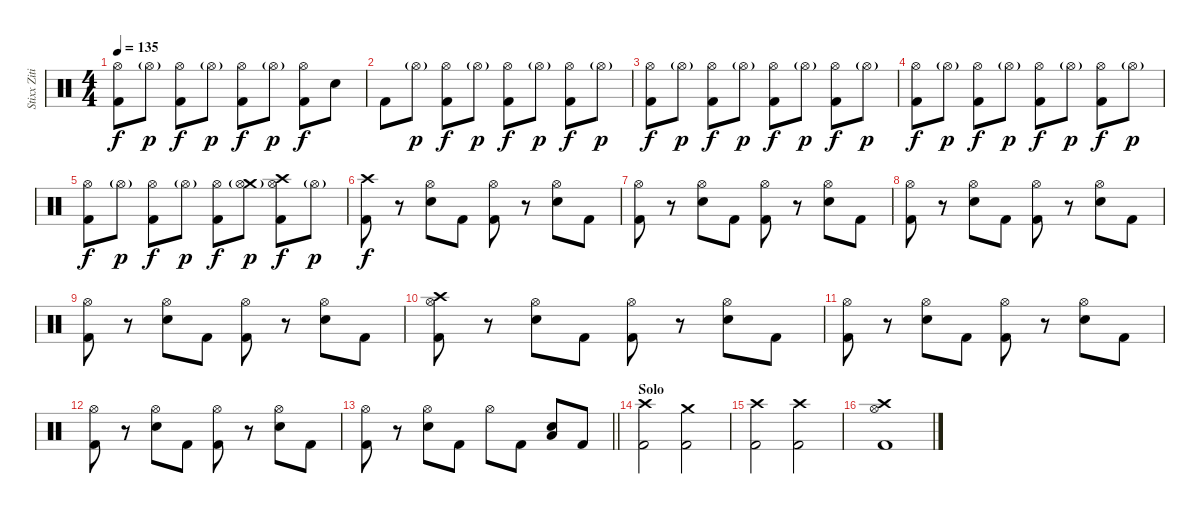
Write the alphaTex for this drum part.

\track ("Stixx Zitinya Drums" "Stixx Ziti") {instrument percussion}
\staff {score}
\articulation defaults
\ts (4 4)
\tempo 135
\clef neutral
\ks c
("Hi-Hat (open)" "Kick (hit) 2").8{dy f} "Hi-Hat (open)"{g}.8{dy p} ("Hi-Hat (open)" "Kick (hit) 2").8{dy f} "Hi-Hat (open)"{g}.8{dy p} ("Hi-Hat (open)" "Kick (hit) 2").8{dy f} "Hi-Hat (open)"{g}.8{dy p} ("Hi-Hat (open)" "Kick (hit) 2").8{dy f} "Snare (hit) 2".8 |
"Kick (hit) 2".8 "Hi-Hat (open)"{g}.8{dy p} ("Hi-Hat (open)" "Kick (hit) 2").8{dy f} "Hi-Hat (open)"{g}.8{dy p} ("Hi-Hat (open)" "Kick (hit) 2").8{dy f} "Hi-Hat (open)"{g}.8{dy p} ("Hi-Hat (open)" "Kick (hit) 2").8{dy f} "Hi-Hat (open)"{g}.8{dy p} |
("Hi-Hat (open)" "Kick (hit) 2").8{dy f} "Hi-Hat (open)"{g}.8{dy p} ("Hi-Hat (open)" "Kick (hit) 2").8{dy f} "Hi-Hat (open)"{g}.8{dy p} ("Hi-Hat (open)" "Kick (hit) 2").8{dy f} "Hi-Hat (open)"{g}.8{dy p} ("Hi-Hat (open)" "Kick (hit) 2").8{dy f} "Hi-Hat (open)"{g}.8{dy p} |
("Hi-Hat (open)" "Kick (hit) 2").8{dy f} "Hi-Hat (open)"{g}.8{dy p} ("Hi-Hat (open)" "Kick (hit) 2").8{dy f} "Hi-Hat (open)"{g}.8{dy p} ("Hi-Hat (open)" "Kick (hit) 2").8{dy f} "Hi-Hat (open)"{g}.8{dy p} ("Hi-Hat (open)" "Kick (hit) 2").8{dy f} "Hi-Hat (open)"{g}.8{dy p} |
("Hi-Hat (open)" "Kick (hit) 2").8{dy f} "Hi-Hat (open)"{g}.8{dy p} ("Hi-Hat (open)" "Kick (hit) 2").8{dy f} "Hi-Hat (open)"{g}.8{dy p} ("Hi-Hat (open)" "Kick (hit) 2").8{dy f} ("Crash medium (hit)" "Hi-Hat (open)"{g}).8{dy p} ("Crash high (hit)" "Hi-Hat (open)" "Kick (hit) 2").8{dy f} "Hi-Hat (open)"{g}.8{dy p} |
("Crash high (hit)" "Kick (hit) 2").8{dy f} r.8 ("Hi-Hat (open)" "Snare (hit) 2").8 "Kick (hit) 2".8 ("Hi-Hat (open)" "Kick (hit) 2").8 r.8 ("Hi-Hat (open)" "Snare (hit) 2").8 "Kick (hit) 2".8 |
("Hi-Hat (open)" "Kick (hit) 2").8 r.8 ("Hi-Hat (open)" "Snare (hit) 2").8 "Kick (hit) 2".8 ("Hi-Hat (open)" "Kick (hit) 2").8 r.8 ("Hi-Hat (open)" "Snare (hit) 2").8 "Kick (hit) 2".8 |
("Hi-Hat (open)" "Kick (hit) 2").8 r.8 ("Hi-Hat (open)" "Snare (hit) 2").8 "Kick (hit) 2".8 ("Hi-Hat (open)" "Kick (hit) 2").8 r.8 ("Hi-Hat (open)" "Snare (hit) 2").8 "Kick (hit) 2".8 |
("Hi-Hat (open)" "Kick (hit) 2").8 r.8 ("Hi-Hat (open)" "Snare (hit) 2").8 "Kick (hit) 2".8 ("Hi-Hat (open)" "Kick (hit) 2").8 r.8 ("Hi-Hat (open)" "Snare (hit) 2").8 "Kick (hit) 2".8 |
("Crash high (hit)" "Hi-Hat (open)" "Kick (hit) 2").8 r.8 ("Hi-Hat (open)" "Snare (hit) 2").8 "Kick (hit) 2".8 ("Hi-Hat (open)" "Kick (hit) 2").8 r.8 ("Hi-Hat (open)" "Snare (hit) 2").8 "Kick (hit) 2".8 |
("Hi-Hat (open)" "Kick (hit) 2").8 r.8 ("Hi-Hat (open)" "Snare (hit) 2").8 "Kick (hit) 2".8 ("Hi-Hat (open)" "Kick (hit) 2").8 r.8 ("Hi-Hat (open)" "Snare (hit) 2").8 "Kick (hit) 2".8 |
("Hi-Hat (open)" "Kick (hit) 2").8 r.8 ("Hi-Hat (open)" "Snare (hit) 2").8 "Kick (hit) 2".8 ("Hi-Hat (open)" "Kick (hit) 2").8 r.8 ("Hi-Hat (open)" "Snare (hit) 2").8 "Kick (hit) 2".8 |
\barLineRight lightlight
("Hi-Hat (open)" "Kick (hit) 2").8 r.8 ("Hi-Hat (open)" "Snare (hit) 2").8 "Kick (hit) 2".8 "Hi-Hat (open)".8 "Kick (hit) 2".8 ("Snare (hit) 2" "Low Floor Tom (hit)").8 "Kick (hit) 2".8 |
\section ("" "Solo")
("Crash high (hit)" "Kick (hit) 2").2 ("Crash medium (hit)" "Kick (hit) 2").2 |
("Crash high (hit)" "Kick (hit) 2").2 ("Crash high (hit)" "Kick (hit) 2").2 |
("Crash high (hit)" "Hi-Hat (open)" "Kick (hit) 2").1
